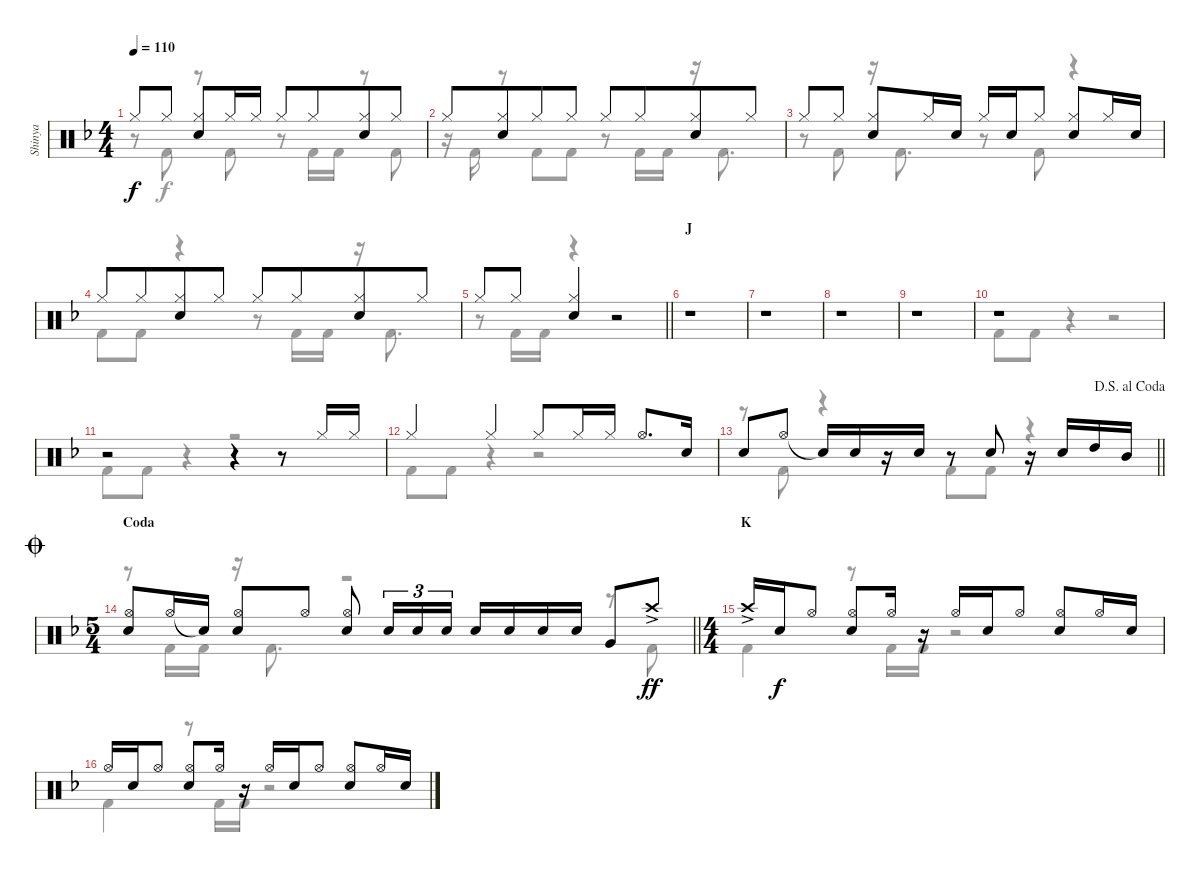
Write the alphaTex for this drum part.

\track ("Shinya" "Shinya") {instrument percussion}
\staff {score}
\articulation defaults
\voice
\ts (4 4)
\tempo 110
\clef neutral
\ks dminor "Hi-Hat (closed)".8{dy f} "Hi-Hat (closed)".8
("Hi-Hat (closed)" "Snare (hit) 2").8 "Hi-Hat (closed)".16 "Hi-Hat (closed)".16 "Hi-Hat (closed)".8 "Hi-Hat (closed)".8{beam merge} ("Hi-Hat (closed)" "Snare (hit) 2").8 "Hi-Hat (closed)".8 |
"Hi-Hat (closed)".8 ("Hi-Hat (closed)" "Snare (hit) 2").8{beam merge} "Hi-Hat (closed)".8 "Hi-Hat (closed)".8 "Hi-Hat (closed)".8 "Hi-Hat (closed)".8{beam merge} ("Hi-Hat (closed)" "Snare (hit) 2").8 "Hi-Hat (closed)".8 |
"Hi-Hat (closed)".8 "Hi-Hat (closed)".8 ("Hi-Hat (closed)" "Snare (hit) 2").8 "Hi-Hat (closed)".16 "Snare (hit) 2".16 "Hi-Hat (closed)".16 "Snare (hit) 2".16 "Hi-Hat (closed)".8 ("Hi-Hat (closed)" "Snare (hit) 2").8 "Hi-Hat (closed)".16 "Snare (hit) 2".16 |
"Hi-Hat (closed)".8 "Hi-Hat (closed)".8{beam merge} ("Hi-Hat (closed)" "Snare (hit) 2").8 "Hi-Hat (closed)".8 "Hi-Hat (closed)".8 "Hi-Hat (closed)".8{beam merge} ("Hi-Hat (closed)" "Snare (hit) 2").8 "Hi-Hat (closed)".8 |
\barLineRight lightlight "Hi-Hat (closed)".8 "Hi-Hat (closed)".8
("Hi-Hat (closed)" "Snare (hit) 2").4 r.2 |
\section ("" "J")
r.1 |
r.1 |
r.1 |
r.1 |
r.1 |
r.2 r.4 r.8 "Hi-Hat (closed)".16 "Hi-Hat (closed)".16 |
"Hi-Hat (closed)".4 "Hi-Hat (closed)".4 "Hi-Hat (closed)".8 "Hi-Hat (closed)".16 "Hi-Hat (closed)".16 "Hi-Hat (open)".8{d} "Snare (hit) 2".16 |
\jump dalsegnoalcoda
\barLineRight lightlight "Snare (hit) 2".8 "Hi-Hat (open)".8 "Snare (hit)"{t}.16 "Snare (hit) 2".16
r.16 "Snare (hit) 2".16 r.8 "Snare (hit) 2".8 r.16 "Snare (hit) 2".16 "High Tom (hit)".16 "Mid Tom (hit)".16 |
\ts (5 4)
\section ("" "Coda")
\jump coda
\barLineRight lightlight
("Hi-Hat (open)" "Snare (hit) 2").8 "Hi-Hat (open)".16 "Snare (hit)"{t}.16 ("Hi-Hat (open)" "Snare (hit) 2").8 "Hi-Hat (open)".8 ("Hi-Hat (open)" "Snare (hit) 2").8 "Snare (hit) 2".16{tu (3 2)} "Snare (hit) 2".16{tu (3 2)} "Snare (hit) 2".16{tu (3 2)} "Snare (hit) 2".16 "Snare (hit) 2".16 "Snare (hit) 2".16 "Snare (hit) 2".16 "Very Low Tom (hit)".8 "Crash high (hit)"{ac}.8{dy ff} |
\ts (4 4)
\section ("" "K")
"Crash high (hit)"{ac}.16 "Snare (hit) 2".16{dy f} "Hi-Hat (open)".8 ("Hi-Hat (open)" "Snare (hit) 2").8 "Hi-Hat (open)".16 r.16 "Hi-Hat (open)".16 "Snare (hit) 2".16 "Hi-Hat (open)".8 ("Hi-Hat (open)" "Snare (hit) 2").8 "Hi-Hat (open)".16 "Snare (hit) 2".16 |
"Hi-Hat (open)".16 "Snare (hit) 2".16 "Hi-Hat (open)".8 ("Hi-Hat (open)" "Snare (hit) 2").8 "Hi-Hat (open)".16 r.16 "Hi-Hat (open)".16 "Snare (hit) 2".16 "Hi-Hat (open)".8 ("Hi-Hat (open)" "Snare (hit) 2").8 "Hi-Hat (open)".16 "Snare (hit) 2".16
\voice
\clef neutral
\ottava regular
\simile none
\ks dminor
r.8{dy f} "Kick (hit) 2".8 r.8 "Kick (hit) 2".8 r.8 "Kick (hit) 2".16 "Kick (hit) 2".16 r.8 "Kick (hit) 2".8 |
r.16 "Kick (hit) 2".16 r.8 "Kick (hit) 2".8 "Kick (hit) 2".8 r.8 "Kick (hit) 2".16 "Kick (hit) 2".16 r.16 "Kick (hit) 2".8{d} |
r.8 "Kick (hit) 2".8 r.16 "Kick (hit) 2".8{d} r.8 "Kick (hit) 2".8 r.4 |
"Kick (hit) 2".8 "Kick (hit) 2".8 r.4 r.8 "Kick (hit) 2".16 "Kick (hit) 2".16 r.16 "Kick (hit) 2".8{d} |
\barLineRight lightlight
r.8 "Kick (hit) 2".16 "Kick (hit) 2".16 r.4 r.2 |
r.1 |
r.1 |
r.1 |
r.1 |
"Kick (hit) 2".8 "Kick (hit) 2".8 r.4 r.2 |
"Kick (hit) 2".8 "Kick (hit) 2".8 r.4 r.2 |
"Kick (hit) 2".8 "Kick (hit) 2".8 r.4 r.2 |
\barLineRight lightlight
r.8 "Kick (hit) 2".8 r.4 "Kick (hit) 2".8 "Kick (hit) 2".8 r.4 |
\barLineRight lightlight
r.8 "Kick (hit) 2".16 "Kick (hit) 2".16 r.16 "Kick (hit) 2".8{d} r.2 r.8 "Kick (hit) 2".8 |
"Kick (hit) 2".4 r.8 "Kick (hit) 2".16 "Kick (hit) 2".16 r.2 |
"Kick (hit) 2".4 r.8 "Kick (hit) 2".16 "Kick (hit) 2".16 r.2
